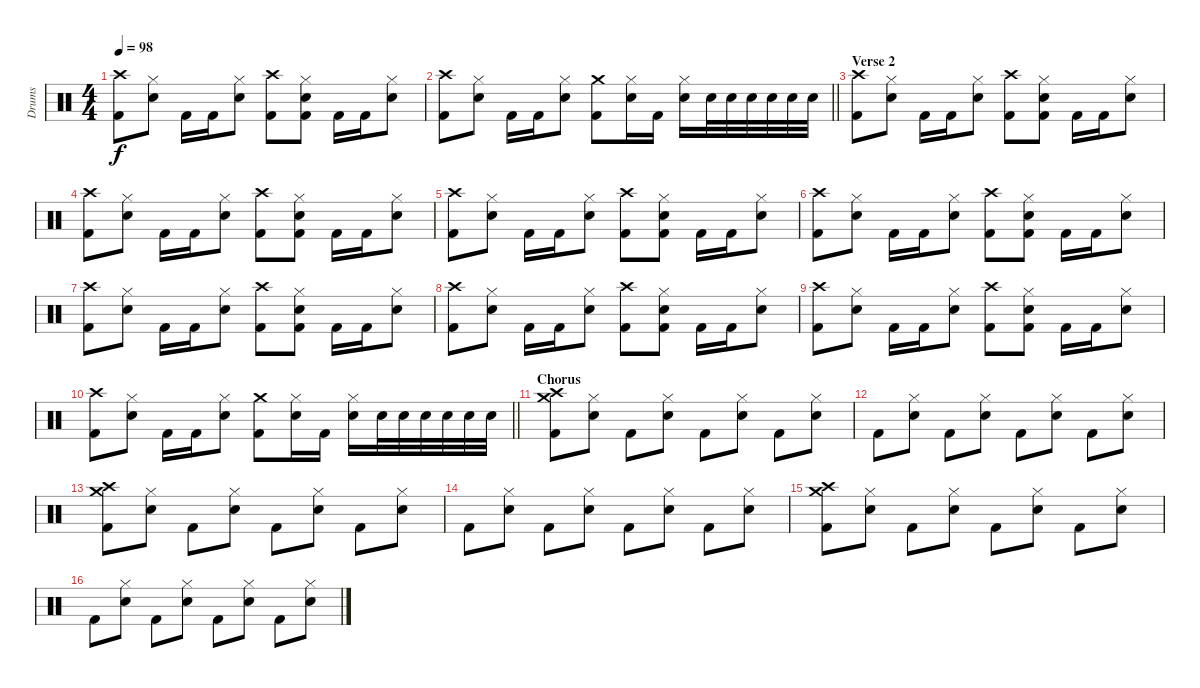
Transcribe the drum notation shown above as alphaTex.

\track ("Drums" "Drums") {instrument percussion}
\staff {score}
\articulation defaults
\ts (4 4)
\tempo 98
\clef neutral
\ks c
("Crash high (hit)" "Kick (hit) 2").8{dy f} ("Hi-Hat (closed)" "Snare (hit) 2").8 "Kick (hit) 2".16 "Kick (hit) 2".16 ("Hi-Hat (closed)" "Snare (hit) 2").8 ("Crash high (hit)" "Kick (hit) 2").8 ("Hi-Hat (closed)" "Snare (hit) 2" "Kick (hit) 2").8 "Kick (hit) 2".16 "Kick (hit) 2".16 ("Hi-Hat (closed)" "Snare (hit) 2").8 |
\barLineRight lightlight
("Crash high (hit)" "Kick (hit) 2").8 ("Hi-Hat (closed)" "Snare (hit) 2").8 "Kick (hit) 2".16 "Kick (hit) 2".16 ("Hi-Hat (closed)" "Snare (hit) 2").8 ("Crash medium (hit)" "Kick (hit) 2").8 ("Hi-Hat (closed)" "Snare (hit) 2").16 "Kick (hit) 2".16 ("Hi-Hat (closed)" "Snare (hit) 2").16 "Snare (hit) 2".32 "Snare (hit) 2".32 "Snare (hit) 2".32 "Snare (hit) 2".32 "Snare (hit) 2".32 "Snare (hit) 2".32 |
\section ("" "Verse 2")
("Crash high (hit)" "Kick (hit) 2").8 ("Hi-Hat (closed)" "Snare (hit) 2").8 "Kick (hit) 2".16 "Kick (hit) 2".16 ("Hi-Hat (closed)" "Snare (hit) 2").8 ("Crash high (hit)" "Kick (hit) 2").8 ("Hi-Hat (closed)" "Snare (hit) 2" "Kick (hit) 2").8 "Kick (hit) 2".16 "Kick (hit) 2".16 ("Hi-Hat (closed)" "Snare (hit) 2").8 |
("Crash high (hit)" "Kick (hit) 2").8 ("Hi-Hat (closed)" "Snare (hit) 2").8 "Kick (hit) 2".16 "Kick (hit) 2".16 ("Hi-Hat (closed)" "Snare (hit) 2").8 ("Crash high (hit)" "Kick (hit) 2").8 ("Hi-Hat (closed)" "Snare (hit) 2" "Kick (hit) 2").8 "Kick (hit) 2".16 "Kick (hit) 2".16 ("Hi-Hat (closed)" "Snare (hit) 2").8 |
("Crash high (hit)" "Kick (hit) 2").8 ("Hi-Hat (closed)" "Snare (hit) 2").8 "Kick (hit) 2".16 "Kick (hit) 2".16 ("Hi-Hat (closed)" "Snare (hit) 2").8 ("Crash high (hit)" "Kick (hit) 2").8 ("Hi-Hat (closed)" "Snare (hit) 2" "Kick (hit) 2").8 "Kick (hit) 2".16 "Kick (hit) 2".16 ("Hi-Hat (closed)" "Snare (hit) 2").8 |
("Crash high (hit)" "Kick (hit) 2").8 ("Hi-Hat (closed)" "Snare (hit) 2").8 "Kick (hit) 2".16 "Kick (hit) 2".16 ("Hi-Hat (closed)" "Snare (hit) 2").8 ("Crash high (hit)" "Kick (hit) 2").8 ("Hi-Hat (closed)" "Snare (hit) 2" "Kick (hit) 2").8 "Kick (hit) 2".16 "Kick (hit) 2".16 ("Hi-Hat (closed)" "Snare (hit) 2").8 |
("Crash high (hit)" "Kick (hit) 2").8 ("Hi-Hat (closed)" "Snare (hit) 2").8 "Kick (hit) 2".16 "Kick (hit) 2".16 ("Hi-Hat (closed)" "Snare (hit) 2").8 ("Crash high (hit)" "Kick (hit) 2").8 ("Hi-Hat (closed)" "Snare (hit) 2" "Kick (hit) 2").8 "Kick (hit) 2".16 "Kick (hit) 2".16 ("Hi-Hat (closed)" "Snare (hit) 2").8 |
("Crash high (hit)" "Kick (hit) 2").8 ("Hi-Hat (closed)" "Snare (hit) 2").8 "Kick (hit) 2".16 "Kick (hit) 2".16 ("Hi-Hat (closed)" "Snare (hit) 2").8 ("Crash high (hit)" "Kick (hit) 2").8 ("Hi-Hat (closed)" "Snare (hit) 2" "Kick (hit) 2").8 "Kick (hit) 2".16 "Kick (hit) 2".16 ("Hi-Hat (closed)" "Snare (hit) 2").8 |
("Crash high (hit)" "Kick (hit) 2").8 ("Hi-Hat (closed)" "Snare (hit) 2").8 "Kick (hit) 2".16 "Kick (hit) 2".16 ("Hi-Hat (closed)" "Snare (hit) 2").8 ("Crash high (hit)" "Kick (hit) 2").8 ("Hi-Hat (closed)" "Snare (hit) 2" "Kick (hit) 2").8 "Kick (hit) 2".16 "Kick (hit) 2".16 ("Hi-Hat (closed)" "Snare (hit) 2").8 |
\barLineRight lightlight
("Crash high (hit)" "Kick (hit) 2").8 ("Hi-Hat (closed)" "Snare (hit) 2").8 "Kick (hit) 2".16 "Kick (hit) 2".16 ("Hi-Hat (closed)" "Snare (hit) 2").8 ("Crash medium (hit)" "Kick (hit) 2").8 ("Hi-Hat (closed)" "Snare (hit) 2").16 "Kick (hit) 2".16 ("Hi-Hat (closed)" "Snare (hit) 2").16 "Snare (hit) 2".32 "Snare (hit) 2".32 "Snare (hit) 2".32 "Snare (hit) 2".32 "Snare (hit) 2".32 "Snare (hit) 2".32 |
\section ("" "Chorus")
("Crash medium (hit)" "Crash high (hit)" "Kick (hit) 2").8 ("Hi-Hat (closed)" "Snare (hit) 2").8 "Kick (hit) 2".8 ("Hi-Hat (closed)" "Snare (hit) 2").8 "Kick (hit) 2".8 ("Hi-Hat (closed)" "Snare (hit) 2").8 "Kick (hit) 2".8 ("Hi-Hat (closed)" "Snare (hit) 2").8 |
"Kick (hit) 2".8 ("Hi-Hat (closed)" "Snare (hit) 2").8 "Kick (hit) 2".8 ("Hi-Hat (closed)" "Snare (hit) 2").8 "Kick (hit) 2".8 ("Hi-Hat (closed)" "Snare (hit) 2").8 "Kick (hit) 2".8 ("Hi-Hat (closed)" "Snare (hit) 2").8 |
("Crash medium (hit)" "Crash high (hit)" "Kick (hit) 2").8 ("Hi-Hat (closed)" "Snare (hit) 2").8 "Kick (hit) 2".8 ("Hi-Hat (closed)" "Snare (hit) 2").8 "Kick (hit) 2".8 ("Hi-Hat (closed)" "Snare (hit) 2").8 "Kick (hit) 2".8 ("Hi-Hat (closed)" "Snare (hit) 2").8 |
"Kick (hit) 2".8 ("Hi-Hat (closed)" "Snare (hit) 2").8 "Kick (hit) 2".8 ("Hi-Hat (closed)" "Snare (hit) 2").8 "Kick (hit) 2".8 ("Hi-Hat (closed)" "Snare (hit) 2").8 "Kick (hit) 2".8 ("Hi-Hat (closed)" "Snare (hit) 2").8 |
("Crash medium (hit)" "Crash high (hit)" "Kick (hit) 2").8 ("Hi-Hat (closed)" "Snare (hit) 2").8 "Kick (hit) 2".8 ("Hi-Hat (closed)" "Snare (hit) 2").8 "Kick (hit) 2".8 ("Hi-Hat (closed)" "Snare (hit) 2").8 "Kick (hit) 2".8 ("Hi-Hat (closed)" "Snare (hit) 2").8 |
"Kick (hit) 2".8 ("Hi-Hat (closed)" "Snare (hit) 2").8 "Kick (hit) 2".8 ("Hi-Hat (closed)" "Snare (hit) 2").8 "Kick (hit) 2".8 ("Hi-Hat (closed)" "Snare (hit) 2").8 "Kick (hit) 2".8 ("Hi-Hat (closed)" "Snare (hit) 2").8
